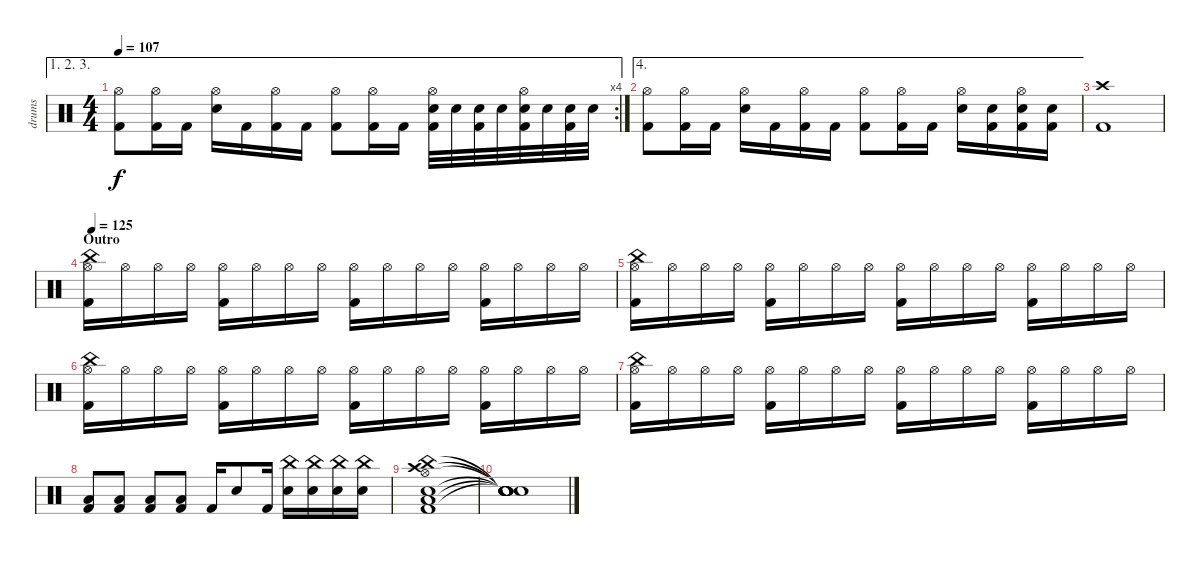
\track ("drums" "drums") {instrument percussion}
\staff {score}
\articulation defaults
\ae (1 2 3)
\rc 4
\ts (4 4)
\tempo 107
\clef neutral
\ks c
("Hi-Hat (open)" "Kick (hit) 2").8{dy f} ("Hi-Hat (open)" "Kick (hit) 2").16 "Kick (hit) 2".16 ("Hi-Hat (open)" "Electric Snare (hit)").16 "Kick (hit) 2".16 ("Hi-Hat (open)" "Kick (hit) 2").16 "Kick (hit) 2".16 ("Hi-Hat (open)" "Kick (hit) 2").8 ("Hi-Hat (open)" "Kick (hit) 2").16 "Kick (hit) 2".16 ("Hi-Hat (open)" "Electric Snare (hit)" "Kick (hit) 2").32 "Electric Snare (hit)".32 ("Electric Snare (hit)" "Kick (hit) 2").32 "Electric Snare (hit)".32 ("Hi-Hat (open)" "Electric Snare (hit)" "Kick (hit) 2").32 "Electric Snare (hit)".32 ("Electric Snare (hit)" "Kick (hit) 2").32 "Electric Snare (hit)".32 |
\ae 4
("Hi-Hat (open)" "Kick (hit) 2").8 ("Hi-Hat (open)" "Kick (hit) 2").16 "Kick (hit) 2".16 ("Hi-Hat (open)" "Electric Snare (hit)").16 "Kick (hit) 2".16 ("Hi-Hat (open)" "Kick (hit) 2").16 "Kick (hit) 2".16 ("Hi-Hat (open)" "Kick (hit) 2").8 ("Hi-Hat (open)" "Kick (hit) 2").16 "Kick (hit) 2".16 ("Hi-Hat (open)" "Electric Snare (hit)").16 ("Electric Snare (hit)" "Kick (hit) 2").16 ("Hi-Hat (open)" "Electric Snare (hit)" "Kick (hit) 2").16 ("Electric Snare (hit)" "Kick (hit) 2").16 |
("Crash high (hit)" "Kick (hit) 2").1 |
\section ("" "Outro")
\tempo 125
("China (hit)" "Hi-Hat (open)" "Kick (hit) 2").16 "Hi-Hat (open)".16 "Hi-Hat (open)".16 "Hi-Hat (open)".16 ("Hi-Hat (open)" "Kick (hit) 2").16 "Hi-Hat (open)".16 "Hi-Hat (open)".16 "Hi-Hat (open)".16 ("Hi-Hat (open)" "Kick (hit) 2").16 "Hi-Hat (open)".16 "Hi-Hat (open)".16 "Hi-Hat (open)".16 ("Hi-Hat (open)" "Kick (hit) 2").16 "Hi-Hat (open)".16 "Hi-Hat (open)".16 "Hi-Hat (open)".16 |
("China (hit)" "Hi-Hat (open)" "Kick (hit) 2").16 "Hi-Hat (open)".16 "Hi-Hat (open)".16 "Hi-Hat (open)".16 ("Hi-Hat (open)" "Kick (hit) 2").16 "Hi-Hat (open)".16 "Hi-Hat (open)".16 "Hi-Hat (open)".16 ("Hi-Hat (open)" "Kick (hit) 2").16 "Hi-Hat (open)".16 "Hi-Hat (open)".16 "Hi-Hat (open)".16 ("Hi-Hat (open)" "Kick (hit) 2").16 "Hi-Hat (open)".16 "Hi-Hat (open)".16 "Hi-Hat (open)".16 |
("China (hit)" "Hi-Hat (open)" "Kick (hit) 2").16 "Hi-Hat (open)".16 "Hi-Hat (open)".16 "Hi-Hat (open)".16 ("Hi-Hat (open)" "Kick (hit) 2").16 "Hi-Hat (open)".16 "Hi-Hat (open)".16 "Hi-Hat (open)".16 ("Hi-Hat (open)" "Kick (hit) 2").16 "Hi-Hat (open)".16 "Hi-Hat (open)".16 "Hi-Hat (open)".16 ("Hi-Hat (open)" "Kick (hit) 2").16 "Hi-Hat (open)".16 "Hi-Hat (open)".16 "Hi-Hat (open)".16 |
("China (hit)" "Hi-Hat (open)" "Kick (hit) 2").16 "Hi-Hat (open)".16 "Hi-Hat (open)".16 "Hi-Hat (open)".16 ("Hi-Hat (open)" "Kick (hit) 2").16 "Hi-Hat (open)".16 "Hi-Hat (open)".16 "Hi-Hat (open)".16 ("Hi-Hat (open)" "Kick (hit) 2").16 "Hi-Hat (open)".16 "Hi-Hat (open)".16 "Hi-Hat (open)".16 ("Hi-Hat (open)" "Kick (hit) 2").16 "Hi-Hat (open)".16 "Hi-Hat (open)".16 "Hi-Hat (open)".16 |
("Low Floor Tom (hit)" "Kick (hit) 2").8 ("Low Floor Tom (hit)" "Kick (hit) 2").8 ("Low Floor Tom (hit)" "Kick (hit) 2").8 ("Low Floor Tom (hit)" "Kick (hit) 2").8 "Kick (hit) 2".16 "Electric Snare (hit)".8 "Kick (hit) 2".16 ("China (hit)" "Electric Snare (hit)").16 ("China (hit)" "Electric Snare (hit)").16 ("China (hit)" "Electric Snare (hit)").16 ("China (hit)" "Electric Snare (hit)").16 |
("Hi-Hat (open)" "Crash high (hit)" "China (hit)" "Low Floor Tom (hit)" "Electric Snare (hit)" "Kick (hit) 2").1 |
("Snare (hit)"{t} "Snare (hit)"{t} "Snare (hit)"{t} "Snare (hit)"{t} "Snare (hit)"{t} "Snare (hit)"{t}).1
